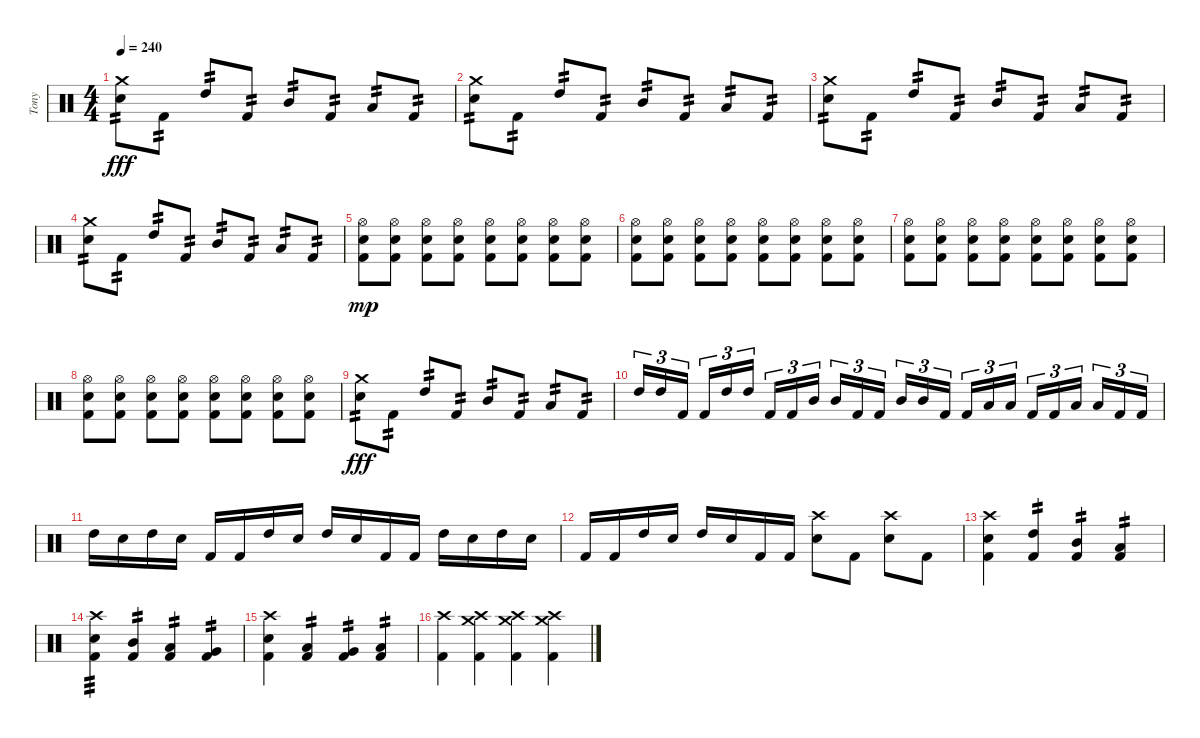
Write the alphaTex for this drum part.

\track ("Tony" "Tony") {instrument percussion}
\staff {score}
\articulation defaults
\ts (4 4)
\tempo 240
\clef neutral
\ks c
("Crash medium (hit)" "Snare (hit) 2").8{tp 2 dy fff} "Kick (hit) 2".8{tp 2} "High Tom (hit)".8{tp 2} "Kick (hit) 2".8{tp 2} "Mid Tom (hit)".8{tp 2} "Kick (hit) 2".8{tp 2} "Low Tom (hit)".8{tp 2} "Kick (hit) 2".8{tp 2} |
("Crash medium (hit)" "Snare (hit) 2").8{tp 2} "Kick (hit) 2".8{tp 2} "High Tom (hit)".8{tp 2} "Kick (hit) 2".8{tp 2} "Mid Tom (hit)".8{tp 2} "Kick (hit) 2".8{tp 2} "Low Tom (hit)".8{tp 2} "Kick (hit) 2".8{tp 2} |
("Crash medium (hit)" "Snare (hit) 2").8{tp 2} "Kick (hit) 2".8{tp 2} "High Tom (hit)".8{tp 2} "Kick (hit) 2".8{tp 2} "Mid Tom (hit)".8{tp 2} "Kick (hit) 2".8{tp 2} "Low Tom (hit)".8{tp 2} "Kick (hit) 2".8{tp 2} |
("Crash medium (hit)" "Snare (hit) 2").8{tp 2} "Kick (hit) 2".8{tp 2} "High Tom (hit)".8{tp 2} "Kick (hit) 2".8{tp 2} "Mid Tom (hit)".8{tp 2} "Kick (hit) 2".8{tp 2} "Low Tom (hit)".8{tp 2} "Kick (hit) 2".8{tp 2} |
("Hi-Hat (open)" "Snare (hit) 2" "Kick (hit) 2").8{dy mp} ("Hi-Hat (open)" "Snare (hit) 2" "Kick (hit) 2").8 ("Hi-Hat (open)" "Snare (hit) 2" "Kick (hit) 2").8 ("Hi-Hat (open)" "Snare (hit) 2" "Kick (hit) 2").8 ("Hi-Hat (open)" "Snare (hit) 2" "Kick (hit) 2").8 ("Hi-Hat (open)" "Snare (hit) 2" "Kick (hit) 2").8 ("Hi-Hat (open)" "Snare (hit) 2" "Kick (hit) 2").8 ("Hi-Hat (open)" "Snare (hit) 2" "Kick (hit) 2").8 |
("Hi-Hat (open)" "Snare (hit) 2" "Kick (hit) 2").8 ("Hi-Hat (open)" "Snare (hit) 2" "Kick (hit) 2").8 ("Hi-Hat (open)" "Snare (hit) 2" "Kick (hit) 2").8 ("Hi-Hat (open)" "Snare (hit) 2" "Kick (hit) 2").8 ("Hi-Hat (open)" "Snare (hit) 2" "Kick (hit) 2").8 ("Hi-Hat (open)" "Snare (hit) 2" "Kick (hit) 2").8 ("Hi-Hat (open)" "Snare (hit) 2" "Kick (hit) 2").8 ("Hi-Hat (open)" "Snare (hit) 2" "Kick (hit) 2").8 |
("Hi-Hat (open)" "Snare (hit) 2" "Kick (hit) 2").8 ("Hi-Hat (open)" "Snare (hit) 2" "Kick (hit) 2").8 ("Hi-Hat (open)" "Snare (hit) 2" "Kick (hit) 2").8 ("Hi-Hat (open)" "Snare (hit) 2" "Kick (hit) 2").8 ("Hi-Hat (open)" "Snare (hit) 2" "Kick (hit) 2").8 ("Hi-Hat (open)" "Snare (hit) 2" "Kick (hit) 2").8 ("Hi-Hat (open)" "Snare (hit) 2" "Kick (hit) 2").8 ("Hi-Hat (open)" "Snare (hit) 2" "Kick (hit) 2").8 |
("Hi-Hat (open)" "Snare (hit) 2" "Kick (hit) 2").8 ("Hi-Hat (open)" "Snare (hit) 2" "Kick (hit) 2").8 ("Hi-Hat (open)" "Snare (hit) 2" "Kick (hit) 2").8 ("Hi-Hat (open)" "Snare (hit) 2" "Kick (hit) 2").8 ("Hi-Hat (open)" "Snare (hit) 2" "Kick (hit) 2").8 ("Hi-Hat (open)" "Snare (hit) 2" "Kick (hit) 2").8 ("Hi-Hat (open)" "Snare (hit) 2" "Kick (hit) 2").8 ("Hi-Hat (open)" "Snare (hit) 2" "Kick (hit) 2").8 |
("Crash medium (hit)" "Snare (hit) 2").8{tp 2 dy fff} "Kick (hit) 2".8{tp 2} "High Tom (hit)".8{tp 2} "Kick (hit) 2".8{tp 2} "Mid Tom (hit)".8{tp 2} "Kick (hit) 2".8{tp 2} "Low Tom (hit)".8{tp 2} "Kick (hit) 2".8{tp 2} |
"High Tom (hit)".16{tu (3 2)} "High Tom (hit)".16{tu (3 2)} "Kick (hit) 2".16{tu (3 2) beam splitsecondary} "Kick (hit) 2".16{tu (3 2)} "High Tom (hit)".16{tu (3 2)} "High Tom (hit)".16{tu (3 2)} "Kick (hit) 2".16{tu (3 2)} "Kick (hit) 2".16{tu (3 2)} "Mid Tom (hit)".16{tu (3 2) beam splitsecondary} "Mid Tom (hit)".16{tu (3 2)} "Kick (hit) 2".16{tu (3 2)} "Kick (hit) 2".16{tu (3 2)} "Mid Tom (hit)".16{tu (3 2)} "Mid Tom (hit)".16{tu (3 2)} "Kick (hit) 2".16{tu (3 2) beam splitsecondary} "Kick (hit) 2".16{tu (3 2)} "Low Tom (hit)".16{tu (3 2)} "Low Tom (hit)".16{tu (3 2)} "Kick (hit) 2".16{tu (3 2)} "Kick (hit) 2".16{tu (3 2)} "Low Tom (hit)".16{tu (3 2) beam splitsecondary} "Low Tom (hit)".16{tu (3 2)} "Kick (hit) 2".16{tu (3 2)} "Kick (hit) 2".16{tu (3 2)} |
"High Tom (hit)".16 "Snare (hit) 2".16 "High Tom (hit)".16 "Snare (hit) 2".16 "Kick (hit) 2".16 "Kick (hit) 2".16 "High Tom (hit)".16 "Snare (hit) 2".16 "High Tom (hit)".16 "Snare (hit) 2".16 "Kick (hit) 2".16 "Kick (hit) 2".16 "High Tom (hit)".16 "Snare (hit) 2".16 "High Tom (hit)".16 "Snare (hit) 2".16 |
"Kick (hit) 2".16 "Kick (hit) 2".16 "High Tom (hit)".16 "Snare (hit) 2".16 "High Tom (hit)".16 "Snare (hit) 2".16 "Kick (hit) 2".16 "Kick (hit) 2".16 ("Crash high (hit)" "Snare (hit) 2").8 "Kick (hit) 2".8 ("Crash high (hit)" "Snare (hit) 2").8 "Kick (hit) 2".8 |
("Crash high (hit)" "Snare (hit)" "Kick (hit) 2").4 ("High Tom (hit)" "Kick (hit) 2").4{tp 2} ("Mid Tom (hit)" "Kick (hit) 2").4{tp 2} ("Low Tom (hit)" "Kick (hit) 2").4{tp 2} |
("Crash high (hit)" "Snare (hit)" "Kick (hit) 2").4{tp 3} ("Mid Tom (hit)" "Kick (hit) 2").4{tp 2} ("Low Tom (hit)" "Kick (hit) 2").4{tp 2} ("Very Low Tom (hit)" "Kick (hit) 2").4{tp 2} |
("Crash high (hit)" "Snare (hit)" "Kick (hit) 2").4 ("Low Tom (hit)" "Kick (hit) 2").4{tp 2} ("Very Low Tom (hit)" "Kick (hit) 2").4{tp 2} ("Low Floor Tom (hit)" "Kick (hit) 2").4{tp 2} |
("Crash high (hit)" "Kick (hit) 2").4 ("Crash medium (hit)" "Crash high (hit)" "Kick (hit) 2").4 ("Crash medium (hit)" "Crash high (hit)" "Kick (hit) 2").4 ("Crash medium (hit)" "Crash high (hit)" "Kick (hit) 2").4
